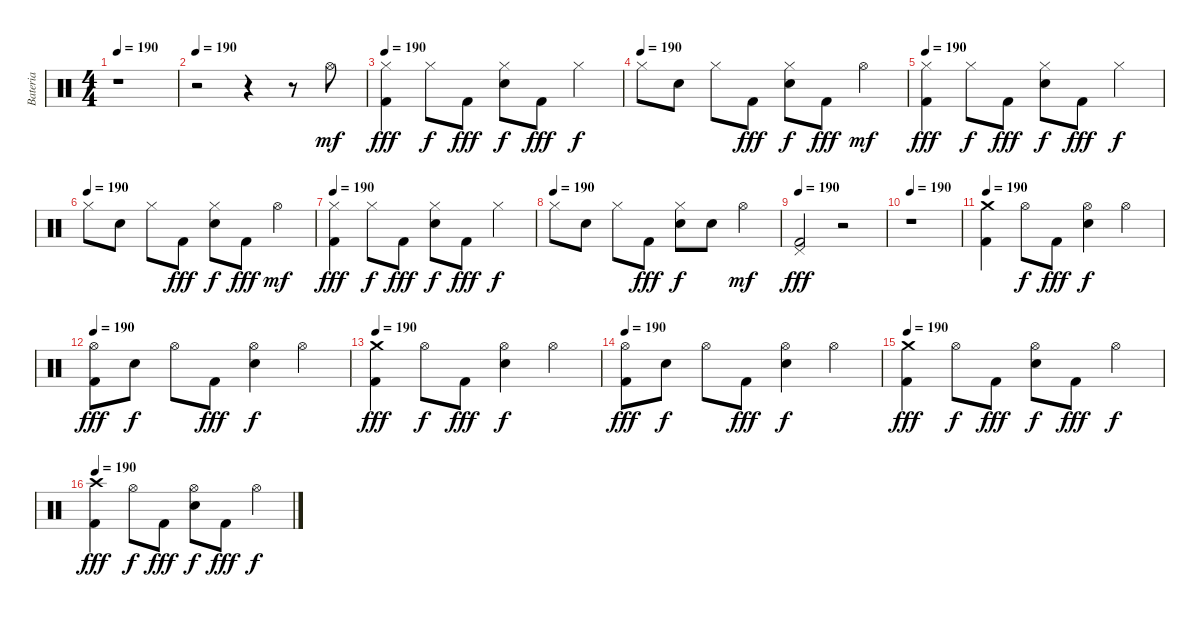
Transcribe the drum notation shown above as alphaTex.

\track ("Bateria" "Bateria") {instrument percussion}
\staff {score}
\articulation defaults
\ts (4 4)
\tempo 190
\clef neutral
\ks c
r.1{dy f} |
\tempo 190
r.2 r.4 r.8 "Hi-Hat (open)".8{dy mf} |
\tempo 190
("Hi-Hat (closed)" "Kick (hit) 2").4{dy fff} "Hi-Hat (closed)".8{dy f} "Kick (hit) 2".8{dy fff} ("Hi-Hat (closed)" "Electric Snare (hit)").8{dy f} "Kick (hit) 2".8{dy fff} "Hi-Hat (closed)".4{dy f} |
\tempo (190)
"Hi-Hat (closed)".8 "Electric Snare (hit)".8 "Hi-Hat (closed)".8 "Kick (hit) 2".8{dy fff} ("Hi-Hat (closed)" "Electric Snare (hit)").8{dy f} "Kick (hit) 2".8{dy fff} "Hi-Hat (open)".4{dy mf} |
\tempo 190
("Hi-Hat (closed)" "Kick (hit) 2").4{dy fff} "Hi-Hat (closed)".8{dy f} "Kick (hit) 2".8{dy fff} ("Hi-Hat (closed)" "Electric Snare (hit)").8{dy f} "Kick (hit) 2".8{dy fff} "Hi-Hat (closed)".4{dy f} |
\tempo (190)
"Hi-Hat (closed)".8 "Electric Snare (hit)".8 "Hi-Hat (closed)".8 "Kick (hit) 2".8{dy fff} ("Hi-Hat (closed)" "Electric Snare (hit)").8{dy f} "Kick (hit) 2".8{dy fff} "Hi-Hat (open)".4{dy mf} |
\tempo 190
("Hi-Hat (closed)" "Kick (hit) 2").4{dy fff} "Hi-Hat (closed)".8{dy f} "Kick (hit) 2".8{dy fff} ("Hi-Hat (closed)" "Electric Snare (hit)").8{dy f} "Kick (hit) 2".8{dy fff} "Hi-Hat (closed)".4{dy f} |
\tempo (190)
"Hi-Hat (closed)".8 "Electric Snare (hit)".8 "Hi-Hat (closed)".8 "Kick (hit) 2".8{dy fff} ("Hi-Hat (closed)" "Electric Snare (hit)").8{dy f} "Electric Snare (hit)".8 "Hi-Hat (open)".4{dy mf} |
\tempo 190
("Pedal Hi-Hat (hit)" "Kick (hit) 2").2{dy fff} r.2 |
\tempo 190
r.1 |
\tempo 190
("Crash medium (hit)" "Kick (hit) 2").4 "Hi-Hat (open)".8{dy f} "Kick (hit) 2".8{dy fff} ("Hi-Hat (open)" "Electric Snare (hit)").4{dy f} "Hi-Hat (open)".4 |
\tempo 190
("Hi-Hat (open)" "Kick (hit) 2").8{dy fff} "Electric Snare (hit)".8{dy f} "Hi-Hat (open)".8 "Kick (hit) 2".8{dy fff} ("Hi-Hat (open)" "Electric Snare (hit)").4{dy f} "Hi-Hat (open)".4 |
\tempo 190
("Crash medium (hit)" "Kick (hit) 2").4{dy fff} "Hi-Hat (open)".8{dy f} "Kick (hit) 2".8{dy fff} ("Hi-Hat (open)" "Electric Snare (hit)").4{dy f} "Hi-Hat (open)".4 |
\tempo 190
("Hi-Hat (open)" "Kick (hit) 2").8{dy fff} "Electric Snare (hit)".8{dy f} "Hi-Hat (open)".8 "Kick (hit) 2".8{dy fff} ("Hi-Hat (open)" "Electric Snare (hit)").4{dy f} "Hi-Hat (open)".4 |
\tempo 190
("Crash medium (hit)" "Kick (hit) 2").4{dy fff} "Hi-Hat (open)".8{dy f} "Kick (hit) 2".8{dy fff} ("Hi-Hat (open)" "Electric Snare (hit)").8{dy f} "Kick (hit) 2".8{dy fff} "Hi-Hat (open)".4{dy f} |
\tempo 190
("Crash high (hit)" "Kick (hit) 2").4{dy fff} "Hi-Hat (open)".8{dy f} "Kick (hit) 2".8{dy fff} ("Hi-Hat (open)" "Electric Snare (hit)").8{dy f} "Kick (hit) 2".8{dy fff} "Hi-Hat (open)".4{dy f}
